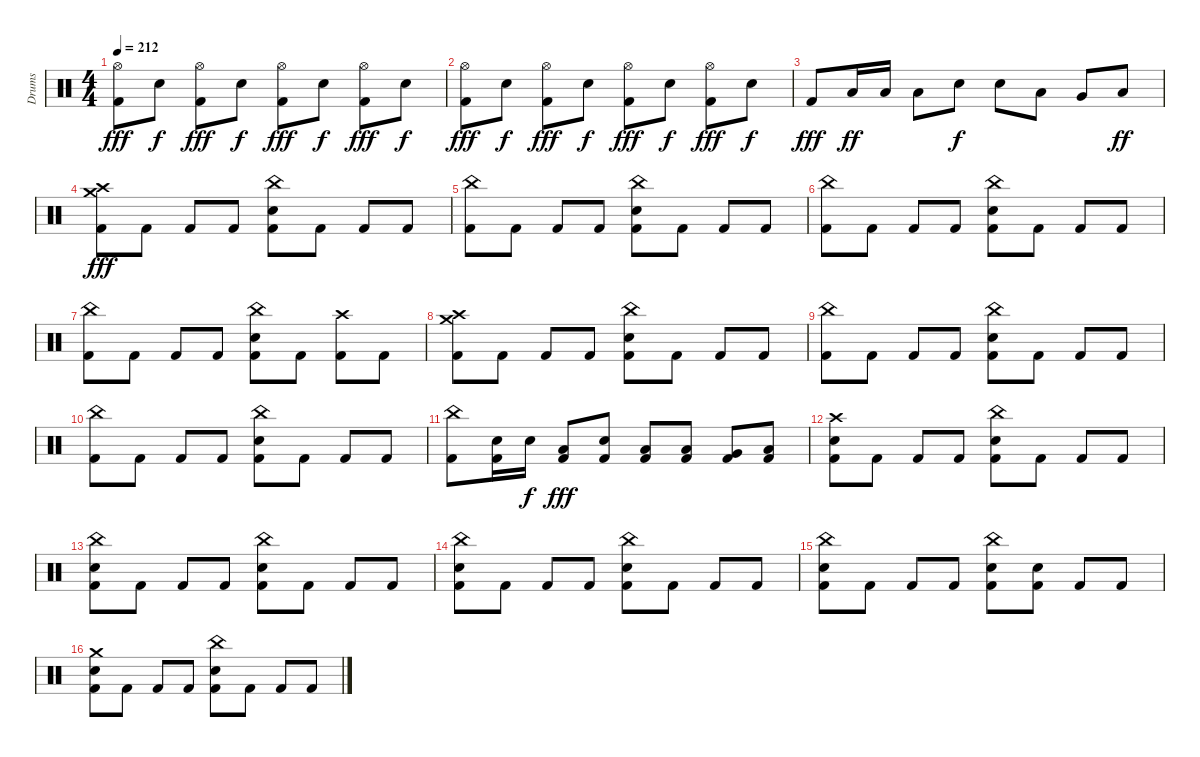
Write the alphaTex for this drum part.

\track ("Drums" "Drums") {instrument percussion}
\staff {score}
\articulation defaults
\ts (4 4)
\tempo 212
\clef neutral
\ks c
("Hi-Hat (open)" "Kick (hit) 2").8{dy fff} "Snare (hit) 2".8{dy f} ("Hi-Hat (open)" "Kick (hit) 2").8{dy fff} "Snare (hit) 2".8{dy f} ("Hi-Hat (open)" "Kick (hit) 2").8{dy fff} "Snare (hit) 2".8{dy f} ("Hi-Hat (open)" "Kick (hit) 2").8{dy fff} "Snare (hit) 2".8{dy f} |
("Hi-Hat (open)" "Kick (hit) 2").8{dy fff} "Snare (hit) 2".8{dy f} ("Hi-Hat (open)" "Kick (hit) 2").8{dy fff} "Snare (hit) 2".8{dy f} ("Hi-Hat (open)" "Kick (hit) 2").8{dy fff} "Snare (hit) 2".8{dy f} ("Hi-Hat (open)" "Kick (hit) 2").8{dy fff} "Snare (hit) 2".8{dy f} |
"Kick (hit) 2".8{dy fff} "Low Floor Tom (hit)".16{dy ff} "Low Floor Tom (hit)".16 "Low Floor Tom (hit)".8 "Snare (hit) 2".8{dy f} "Snare (hit) 2".8 "Low Tom (hit)".8 "Very Low Tom (hit)".8 "Low Floor Tom (hit)".8{dy ff} |
("Crash high (hit)" "Crash medium (hit)" "Kick (hit) 2").8{dy fff} "Kick (hit) 2".8 "Kick (hit) 2".8 "Kick (hit) 2".8 ("China (hit)" "Snare (hit) 2" "Kick (hit) 2").8 "Kick (hit) 2".8 "Kick (hit) 2".8 "Kick (hit) 2".8 |
("China (hit)" "Kick (hit) 2").8 "Kick (hit) 2".8 "Kick (hit) 2".8 "Kick (hit) 2".8 ("China (hit)" "Snare (hit) 2" "Kick (hit) 2").8 "Kick (hit) 2".8 "Kick (hit) 2".8 "Kick (hit) 2".8 |
("China (hit)" "Kick (hit) 2").8 "Kick (hit) 2".8 "Kick (hit) 2".8 "Kick (hit) 2".8 ("China (hit)" "Snare (hit) 2" "Kick (hit) 2").8 "Kick (hit) 2".8 "Kick (hit) 2".8 "Kick (hit) 2".8 |
("China (hit)" "Kick (hit) 2").8 "Kick (hit) 2".8 "Kick (hit) 2".8 "Kick (hit) 2".8 ("China (hit)" "Snare (hit) 2" "Kick (hit) 2").8 "Kick (hit) 2".8 ("Crash high (hit)" "Kick (hit) 2").8 "Kick (hit) 2".8 |
("Crash high (hit)" "Crash medium (hit)" "Kick (hit) 2").8 "Kick (hit) 2".8 "Kick (hit) 2".8 "Kick (hit) 2".8 ("China (hit)" "Snare (hit) 2" "Kick (hit) 2").8 "Kick (hit) 2".8 "Kick (hit) 2".8 "Kick (hit) 2".8 |
("China (hit)" "Kick (hit) 2").8 "Kick (hit) 2".8 "Kick (hit) 2".8 "Kick (hit) 2".8 ("China (hit)" "Snare (hit) 2" "Kick (hit) 2").8 "Kick (hit) 2".8 "Kick (hit) 2".8 "Kick (hit) 2".8 |
("China (hit)" "Kick (hit) 2").8 "Kick (hit) 2".8 "Kick (hit) 2".8 "Kick (hit) 2".8 ("China (hit)" "Snare (hit) 2" "Kick (hit) 2").8 "Kick (hit) 2".8 "Kick (hit) 2".8 "Kick (hit) 2".8 |
("China (hit)" "Kick (hit) 2").8 ("Snare (hit) 2" "Kick (hit) 2").16 "Snare (hit) 2".16{dy f} ("Low Tom (hit)" "Kick (hit) 2").8{dy fff} ("Snare (hit) 2" "Kick (hit) 2").8 ("Low Tom (hit)" "Kick (hit) 2").8 ("Low Tom (hit)" "Kick (hit) 2").8 ("Very Low Tom (hit)" "Kick (hit) 2").8 ("Low Floor Tom (hit)" "Kick (hit) 2").8 |
("Crash high (hit)" "Snare (hit) 2" "Kick (hit) 2").8 "Kick (hit) 2".8 "Kick (hit) 2".8 "Kick (hit) 2".8 ("China (hit)" "Snare (hit) 2" "Kick (hit) 2").8 "Kick (hit) 2".8 "Kick (hit) 2".8 "Kick (hit) 2".8 |
("China (hit)" "Snare (hit) 2" "Kick (hit) 2").8 "Kick (hit) 2".8 "Kick (hit) 2".8 "Kick (hit) 2".8 ("China (hit)" "Snare (hit) 2" "Kick (hit) 2").8 "Kick (hit) 2".8 "Kick (hit) 2".8 "Kick (hit) 2".8 |
("China (hit)" "Snare (hit) 2" "Kick (hit) 2").8 "Kick (hit) 2".8 "Kick (hit) 2".8 "Kick (hit) 2".8 ("China (hit)" "Snare (hit) 2" "Kick (hit) 2").8 "Kick (hit) 2".8 "Kick (hit) 2".8 "Kick (hit) 2".8 |
("China (hit)" "Snare (hit) 2" "Kick (hit) 2").8 "Kick (hit) 2".8 "Kick (hit) 2".8 "Kick (hit) 2".8 ("China (hit)" "Snare (hit) 2" "Kick (hit) 2").8 ("Snare (hit) 2" "Kick (hit) 2").8 "Kick (hit) 2".8 "Kick (hit) 2".8 |
("Crash medium (hit)" "Snare (hit) 2" "Kick (hit) 2").8 "Kick (hit) 2".8 "Kick (hit) 2".8 "Kick (hit) 2".8 ("China (hit)" "Snare (hit) 2" "Kick (hit) 2").8 "Kick (hit) 2".8 "Kick (hit) 2".8 "Kick (hit) 2".8
